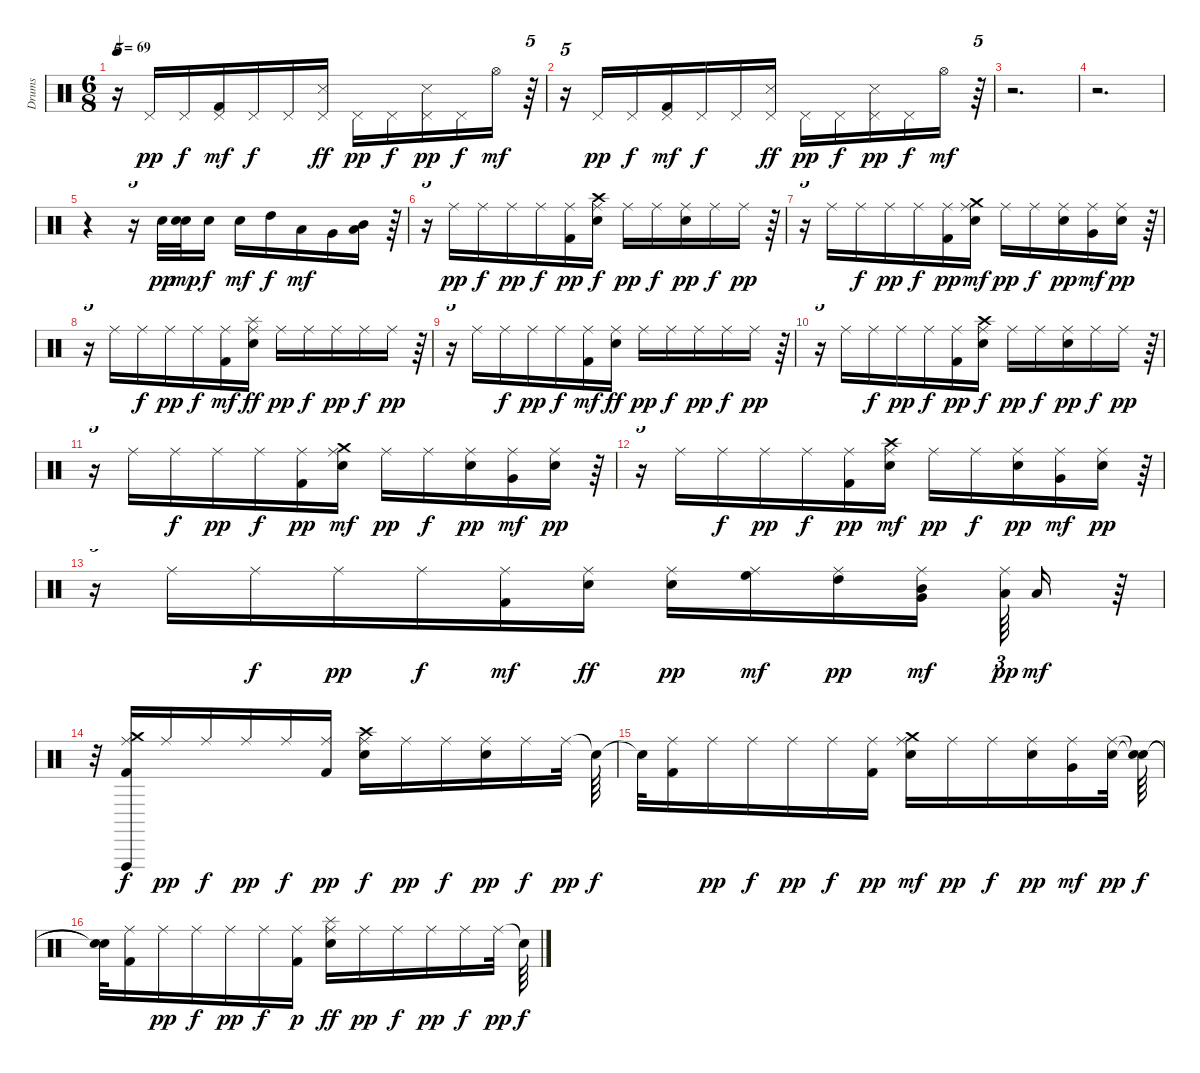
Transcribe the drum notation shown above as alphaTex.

\track ("Drums" "Drums") {instrument percussion}
\staff {score}
\articulation defaults
\ts (6 8)
\tempo 69
\clef neutral
\ks c
r.16{tu (5 4) dy mf} "Pedal Hi-Hat (hit)".16{dy pp} "Pedal Hi-Hat (hit)".16{dy f} ("Pedal Hi-Hat (hit)" "Kick (hit) 2").16{dy mf} "Pedal Hi-Hat (hit)".16{dy f} "Pedal Hi-Hat (hit)".16 ("Snare (side stick) 3" "Pedal Hi-Hat (hit)").16{dy ff} "Pedal Hi-Hat (hit)".16{dy pp} "Pedal Hi-Hat (hit)".16{dy f} ("Snare (side stick) 3" "Pedal Hi-Hat (hit)").16{dy pp} "Pedal Hi-Hat (hit)".16{dy f} "Hi-Hat (open)".16{dy mf} r.64{tu (5 4)} |
r.16{tu (5 4)} "Pedal Hi-Hat (hit)".16{dy pp} "Pedal Hi-Hat (hit)".16{dy f} ("Pedal Hi-Hat (hit)" "Kick (hit) 2").16{dy mf} "Pedal Hi-Hat (hit)".16{dy f} "Pedal Hi-Hat (hit)".16 ("Snare (side stick) 3" "Pedal Hi-Hat (hit)").16{dy ff} "Pedal Hi-Hat (hit)".16{dy pp} "Pedal Hi-Hat (hit)".16{dy f} ("Snare (side stick) 3" "Pedal Hi-Hat (hit)").16{dy pp} "Pedal Hi-Hat (hit)".16{dy f} "Hi-Hat (open)".16{dy mf} r.64{tu (5 4)} |
r.2{d} |
r.2{d} |
r.4 r.16{tu (5 4)} "Snare (hit) 2".32{dy pp} ("Snare (hit) 2" "Snare (hit) 2").32{dy mp} "Snare (hit) 2".16{dy f} "Snare (hit) 2".16{dy mf} "High Tom (hit)".16{dy f} "Low Tom (hit)".16{dy mf} "Very Low Tom (hit)".16 ("Mid Tom (hit)" "Low Floor Tom (hit)").16 r.64{tu (5 4)} |
r.16{tu (5 4)} "Ride (middle)".16{dy pp} "Ride (middle)".16{dy f} "Ride (middle)".16{dy pp} "Ride (middle)".16{dy f} ("Kick (hit) 2" "Ride (middle)").16{dy pp} ("Snare (hit) 2" "Crash high (hit)" "Ride (middle)").16{dy f} "Ride (middle)".16{dy pp} "Ride (middle)".16{dy f} ("Snare (hit) 2" "Ride (middle)").16{dy pp} "Ride (middle)".16{dy f} "Ride (middle)".16{dy pp} r.64{tu (5 4)} |
r.16{tu (5 4)} "Ride (middle)".16 "Ride (middle)".16{dy f} "Ride (middle)".16{dy pp} "Ride (middle)".16{dy f} ("Kick (hit) 2" "Ride (middle)").16{dy pp} ("Crash medium (hit)" "Snare (hit) 2" "Ride (middle)").16{dy mf} "Ride (middle)".16{dy pp} "Ride (middle)".16{dy f} ("Snare (hit) 2" "Ride (middle)").16{dy pp} ("Very Low Tom (hit)" "Ride (middle)").16{dy mf} ("Snare (hit) 2" "Ride (middle)").16{dy pp} r.64{tu (5 4)} |
r.16{tu (5 4)} "Ride (middle)".16 "Ride (middle)".16{dy f} "Ride (middle)".16{dy pp} "Ride (middle)".16{dy f} ("Kick (hit) 2" "Ride (middle)").16{dy mf} ("Splash (hit)" "Snare (hit) 2" "Ride (middle)").16{dy ff} "Ride (middle)".16{dy pp} "Ride (middle)".16{dy f} "Ride (middle)".16{dy pp} "Ride (middle)".16{dy f} "Ride (middle)".16{dy pp} r.64{tu (5 4)} |
r.16{tu (5 4)} "Ride (middle)".16 "Ride (middle)".16{dy f} "Ride (middle)".16{dy pp} "Ride (middle)".16{dy f} ("Kick (hit) 2" "Ride (middle)").16{dy mf} ("Snare (hit) 2" "Ride (middle)").16{dy ff} "Ride (middle)".16{dy pp} "Ride (middle)".16{dy f} "Ride (middle)".16{dy pp} "Ride (middle)".16{dy f} "Ride (middle)".16{dy pp} r.64{tu (5 4)} |
r.16{tu (5 4)} "Ride (middle)".16 "Ride (middle)".16{dy f} "Ride (middle)".16{dy pp} "Ride (middle)".16{dy f} ("Kick (hit) 2" "Ride (middle)").16{dy pp} ("Snare (hit) 2" "Crash high (hit)" "Ride (middle)").16{dy f} "Ride (middle)".16{dy pp} "Ride (middle)".16{dy f} ("Snare (hit) 2" "Ride (middle)").16{dy pp} "Ride (middle)".16{dy f} "Ride (middle)".16{dy pp} r.64{tu (5 4)} |
r.16{tu (5 4)} "Ride (middle)".16 "Ride (middle)".16{dy f} "Ride (middle)".16{dy pp} "Ride (middle)".16{dy f} ("Kick (hit) 2" "Ride (middle)").16{dy pp} ("Snare (hit) 2" "Crash medium (hit)" "Ride (middle)").16{dy mf} "Ride (middle)".16{dy pp} "Ride (middle)".16{dy f} ("Snare (hit) 2" "Ride (middle)").16{dy pp} ("Very Low Tom (hit)" "Ride (middle)").16{dy mf} ("Snare (hit) 2" "Ride (middle)").16{dy pp} r.64{tu (5 4)} |
r.16{tu (5 4)} "Ride (middle)".16 "Ride (middle)".16{dy f} "Ride (middle)".16{dy pp} "Ride (middle)".16{dy f} ("Kick (hit) 2" "Ride (middle)").16{dy pp} ("Crash high (hit)" "Snare (hit) 2" "Ride (middle)").16{dy mf} "Ride (middle)".16{dy pp} "Ride (middle)".16{dy f} ("Snare (hit) 2" "Ride (middle)").16{dy pp} ("Very Low Tom (hit)" "Ride (middle)").16{dy mf} ("Snare (hit) 2" "Ride (middle)").16{dy pp} r.64{tu (5 4)} |
r.16{tu (5 4)} "Ride (middle)".16 "Ride (middle)".16{dy f} "Ride (middle)".16{dy pp} "Ride (middle)".16{dy f} ("Kick (hit) 2" "Ride (middle)").16{dy mf} ("Snare (hit) 2" "Ride (middle)").16{dy ff} ("Snare (hit) 2" "Ride (middle)").16{dy pp} ("High Floor Tom (hit)" "Ride (middle)").16{dy mf} ("High Tom (hit)" "Ride (middle)").16{dy pp} ("Mid Tom (hit)" "Very Low Tom (hit)" "Ride (middle)").16{dy mf beam splitsecondary} ("Low Tom (hit)" "Ride (middle)").64{tu (3 2) dy pp} "Low Floor Tom (hit)".16{dy mf} r.64 |
r.32 ("Vibraslap (hit)" "Kick (hit) 2" "Crash medium (hit)" "Ride (middle)").16{dy f} "Ride (middle)".16{dy pp} "Ride (middle)".16{dy f} "Ride (middle)".16{dy pp} "Ride (middle)".16{dy f} ("Kick (hit) 2" "Ride (middle)").16{dy pp} ("Snare (hit) 2" "Crash high (hit)" "Ride (middle)").16{dy f} "Ride (middle)".16{dy pp} "Ride (middle)".16{dy f} ("Snare (hit) 2" "Ride (middle)").16{dy pp} "Ride (middle)".16{dy f} "Ride (middle)".32{dy pp} "Snare (hit)"{t}.64{dy f} |
"Snare (hit)"{t}.32 ("Kick (hit) 2" "Ride (middle)").16 "Ride (middle)".16{dy pp} "Ride (middle)".16{dy f} "Ride (middle)".16{dy pp} "Ride (middle)".16{dy f} ("Kick (hit) 2" "Ride (middle)").16{dy pp} ("Crash medium (hit)" "Snare (hit) 2" "Ride (middle)").16{dy mf} "Ride (middle)".16{dy pp} "Ride (middle)".16{dy f} ("Snare (hit) 2" "Ride (middle)").16{dy pp} ("Very Low Tom (hit)" "Ride (middle)").16{dy mf} ("Snare (hit) 2" "Ride (middle)").32{dy pp} ("Snare (hit)"{t} "Snare (hit)"{t}).64{dy f} |
("Snare (hit)"{t} "Snare (hit)"{t}).32 ("Kick (hit) 2" "Ride (middle)").16 "Ride (middle)".16{dy pp} "Ride (middle)".16{dy f} "Ride (middle)".16{dy pp} "Ride (middle)".16{dy f} ("Kick (hit) 2" "Ride (middle)").16{dy p} ("Splash (hit)" "Snare (hit) 2" "Ride (middle)").16{dy ff} "Ride (middle)".16{dy pp} "Ride (middle)".16{dy f} "Ride (middle)".16{dy pp} "Ride (middle)".16{dy f} "Ride (middle)".32{dy pp} "Snare (hit)"{t}.64{dy f}
